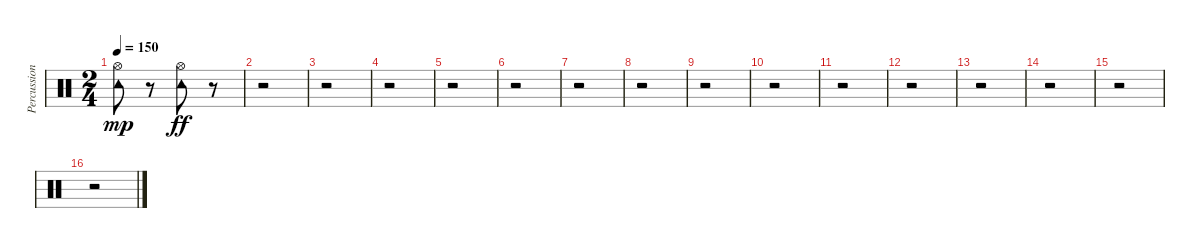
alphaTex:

\track ("Percussion" "Percussion") {instrument percussion}
\staff {score}
\articulation defaults
\ts (2 4)
\tempo 150
\clef neutral
\ks c
("Tambourine (hit)" "Hi-Hat (open)").8{dy mp} r.8 ("Tambourine (hit)" "Hi-Hat (open)").8{dy ff} r.8 |
r.2 |
r.2 |
r.2 |
r.2 |
r.2 |
r.2 |
r.2 |
r.2 |
r.2 |
r.2 |
r.2 |
r.2 |
r.2 |
r.2 |
r.2
